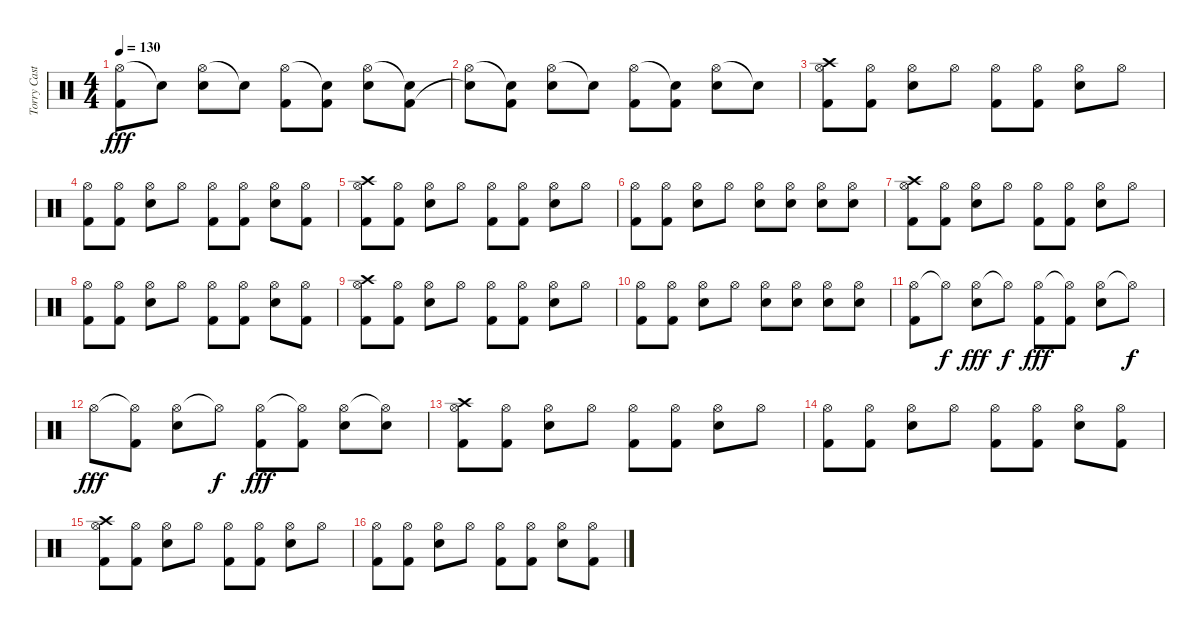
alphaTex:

\track ("Torry Castellano" "Torry Cast") {instrument percussion}
\staff {score}
\articulation defaults
\ts (4 4)
\tempo 130
\clef neutral
\ks c
("Hi-Hat (open)" "Kick (hit) 2").8{dy fff} "Snare (hit)"{t}.8 ("Hi-Hat (open)" "Electric Snare (hit)").8 "Snare (hit)"{t}.8 ("Hi-Hat (open)" "Kick (hit) 2").8 ("Snare (hit)"{t} "Kick (hit) 2").8 ("Hi-Hat (open)" "Electric Snare (hit)").8 ("Snare (hit)"{t} "Kick (hit) 2").8 |
("Hi-Hat (open)" "Snare (hit)"{t}).8 ("Snare (hit)"{t} "Kick (hit) 2").8 ("Hi-Hat (open)" "Electric Snare (hit)").8 "Snare (hit)"{t}.8 ("Hi-Hat (open)" "Kick (hit) 2").8 ("Snare (hit)"{t} "Kick (hit) 2").8 ("Hi-Hat (open)" "Electric Snare (hit)").8 "Snare (hit)"{t}.8 |
("Crash high (hit)" "Hi-Hat (open)" "Kick (hit) 2").8 ("Hi-Hat (open)" "Kick (hit) 2").8 ("Hi-Hat (open)" "Electric Snare (hit)").8 "Hi-Hat (open)".8 ("Hi-Hat (open)" "Kick (hit) 2").8 ("Hi-Hat (open)" "Kick (hit) 2").8 ("Hi-Hat (open)" "Electric Snare (hit)").8 "Hi-Hat (open)".8 |
("Hi-Hat (open)" "Kick (hit) 2").8 ("Hi-Hat (open)" "Kick (hit) 2").8 ("Hi-Hat (open)" "Electric Snare (hit)").8 "Hi-Hat (open)".8 ("Hi-Hat (open)" "Kick (hit) 2").8 ("Hi-Hat (open)" "Kick (hit) 2").8 ("Hi-Hat (open)" "Electric Snare (hit)").8 ("Hi-Hat (open)" "Kick (hit) 2").8 |
("Crash high (hit)" "Hi-Hat (open)" "Kick (hit) 2").8 ("Hi-Hat (open)" "Kick (hit) 2").8 ("Hi-Hat (open)" "Electric Snare (hit)").8 "Hi-Hat (open)".8 ("Hi-Hat (open)" "Kick (hit) 2").8 ("Hi-Hat (open)" "Kick (hit) 2").8 ("Hi-Hat (open)" "Electric Snare (hit)").8 "Hi-Hat (open)".8 |
("Hi-Hat (open)" "Kick (hit) 2").8 ("Hi-Hat (open)" "Kick (hit) 2").8 ("Hi-Hat (open)" "Electric Snare (hit)").8 "Hi-Hat (open)".8 ("Hi-Hat (open)" "Electric Snare (hit)").8 ("Hi-Hat (open)" "Electric Snare (hit)").8 ("Hi-Hat (open)" "Electric Snare (hit)").8 ("Hi-Hat (open)" "Electric Snare (hit)").8 |
("Crash high (hit)" "Hi-Hat (open)" "Kick (hit) 2").8 ("Hi-Hat (open)" "Kick (hit) 2").8 ("Hi-Hat (open)" "Electric Snare (hit)").8 "Hi-Hat (open)".8 ("Hi-Hat (open)" "Kick (hit) 2").8 ("Hi-Hat (open)" "Kick (hit) 2").8 ("Hi-Hat (open)" "Electric Snare (hit)").8 "Hi-Hat (open)".8 |
("Hi-Hat (open)" "Kick (hit) 2").8 ("Hi-Hat (open)" "Kick (hit) 2").8 ("Hi-Hat (open)" "Electric Snare (hit)").8 "Hi-Hat (open)".8 ("Hi-Hat (open)" "Kick (hit) 2").8 ("Hi-Hat (open)" "Kick (hit) 2").8 ("Hi-Hat (open)" "Electric Snare (hit)").8 ("Hi-Hat (open)" "Kick (hit) 2").8 |
("Crash high (hit)" "Hi-Hat (open)" "Kick (hit) 2").8 ("Hi-Hat (open)" "Kick (hit) 2").8 ("Hi-Hat (open)" "Electric Snare (hit)").8 "Hi-Hat (open)".8 ("Hi-Hat (open)" "Kick (hit) 2").8 ("Hi-Hat (open)" "Kick (hit) 2").8 ("Hi-Hat (open)" "Electric Snare (hit)").8 "Hi-Hat (open)".8 |
("Hi-Hat (open)" "Kick (hit) 2").8 ("Hi-Hat (open)" "Kick (hit) 2").8 ("Hi-Hat (open)" "Electric Snare (hit)").8 "Hi-Hat (open)".8 ("Hi-Hat (open)" "Electric Snare (hit)").8 ("Hi-Hat (open)" "Electric Snare (hit)").8 ("Hi-Hat (open)" "Electric Snare (hit)").8 ("Hi-Hat (open)" "Electric Snare (hit)").8 |
("Hi-Hat (open)" "Kick (hit) 2").8 "Hi-Hat (open)"{t}.8{dy f} ("Hi-Hat (open)" "Electric Snare (hit)").8{dy fff} "Hi-Hat (open)"{t}.8{dy f} ("Hi-Hat (open)" "Kick (hit) 2").8{dy fff} ("Hi-Hat (open)"{t} "Kick (hit) 2").8 ("Hi-Hat (open)" "Electric Snare (hit)").8 "Hi-Hat (open)"{t}.8{dy f} |
"Hi-Hat (open)".8{dy fff} ("Hi-Hat (open)"{t} "Kick (hit) 2").8 ("Hi-Hat (open)" "Electric Snare (hit)").8 "Hi-Hat (open)"{t}.8{dy f} ("Hi-Hat (open)" "Kick (hit) 2").8{dy fff} ("Hi-Hat (open)"{t} "Kick (hit) 2").8 ("Hi-Hat (open)" "Electric Snare (hit)").8 ("Hi-Hat (open)"{t} "Electric Snare (hit)").8 |
("Crash high (hit)" "Hi-Hat (open)" "Kick (hit) 2").8 ("Hi-Hat (open)" "Kick (hit) 2").8 ("Hi-Hat (open)" "Electric Snare (hit)").8 "Hi-Hat (open)".8 ("Hi-Hat (open)" "Kick (hit) 2").8 ("Hi-Hat (open)" "Kick (hit) 2").8 ("Hi-Hat (open)" "Electric Snare (hit)").8 "Hi-Hat (open)".8 |
("Hi-Hat (open)" "Kick (hit) 2").8 ("Hi-Hat (open)" "Kick (hit) 2").8 ("Hi-Hat (open)" "Electric Snare (hit)").8 "Hi-Hat (open)".8 ("Hi-Hat (open)" "Kick (hit) 2").8 ("Hi-Hat (open)" "Kick (hit) 2").8 ("Hi-Hat (open)" "Electric Snare (hit)").8 ("Hi-Hat (open)" "Kick (hit) 2").8 |
("Crash high (hit)" "Hi-Hat (open)" "Kick (hit) 2").8 ("Hi-Hat (open)" "Kick (hit) 2").8 ("Hi-Hat (open)" "Electric Snare (hit)").8 "Hi-Hat (open)".8 ("Hi-Hat (open)" "Kick (hit) 2").8 ("Hi-Hat (open)" "Kick (hit) 2").8 ("Hi-Hat (open)" "Electric Snare (hit)").8 "Hi-Hat (open)".8 |
("Hi-Hat (open)" "Kick (hit) 2").8 ("Hi-Hat (open)" "Kick (hit) 2").8 ("Hi-Hat (open)" "Electric Snare (hit)").8 "Hi-Hat (open)".8 ("Hi-Hat (open)" "Kick (hit) 2").8 ("Hi-Hat (open)" "Kick (hit) 2").8 ("Hi-Hat (open)" "Electric Snare (hit)").8 ("Hi-Hat (open)" "Kick (hit) 2").8
